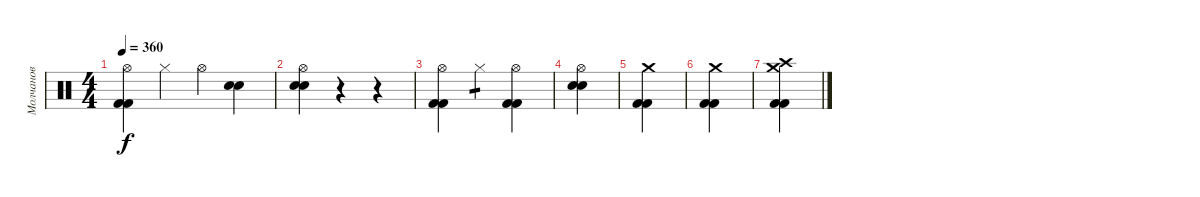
\track ("Молчанов" "Молчанов") {instrument percussion}
\staff {score}
\articulation defaults
\ts (4 4)
\tempo 360
\clef neutral
\ks c
("Kick (hit) 2" "Kick (hit) 2" "Hi-Hat (open)").4{dy f} "Hi-Hat (closed)"{x}.4 "Hi-Hat (open)"{x}.4 ("Snare (hit)"{x} "Snare (hit)"{x}).4 |
("Electric Snare (hit)" "Electric Snare (hit)" "Hi-Hat (open)").4 r.4 r.4 |
("Kick (hit) 2" "Kick (hit) 2" "Hi-Hat (open)").4 "Hi-Hat (closed)".4{tp 1} ("Kick (hit) 2" "Kick (hit) 2" "Hi-Hat (open)").4 |
("Electric Snare (hit)" "Electric Snare (hit)" "Hi-Hat (open)").4 |
("Kick (hit) 2" "Kick (hit) 2" "Crash medium (hit)").4 |
("Kick (hit) 2" "Kick (hit) 2" "Crash medium (hit)").4 |
("Crash high (hit)" "Kick (hit) 2" "Kick (hit) 2" "Crash medium (hit)").4
